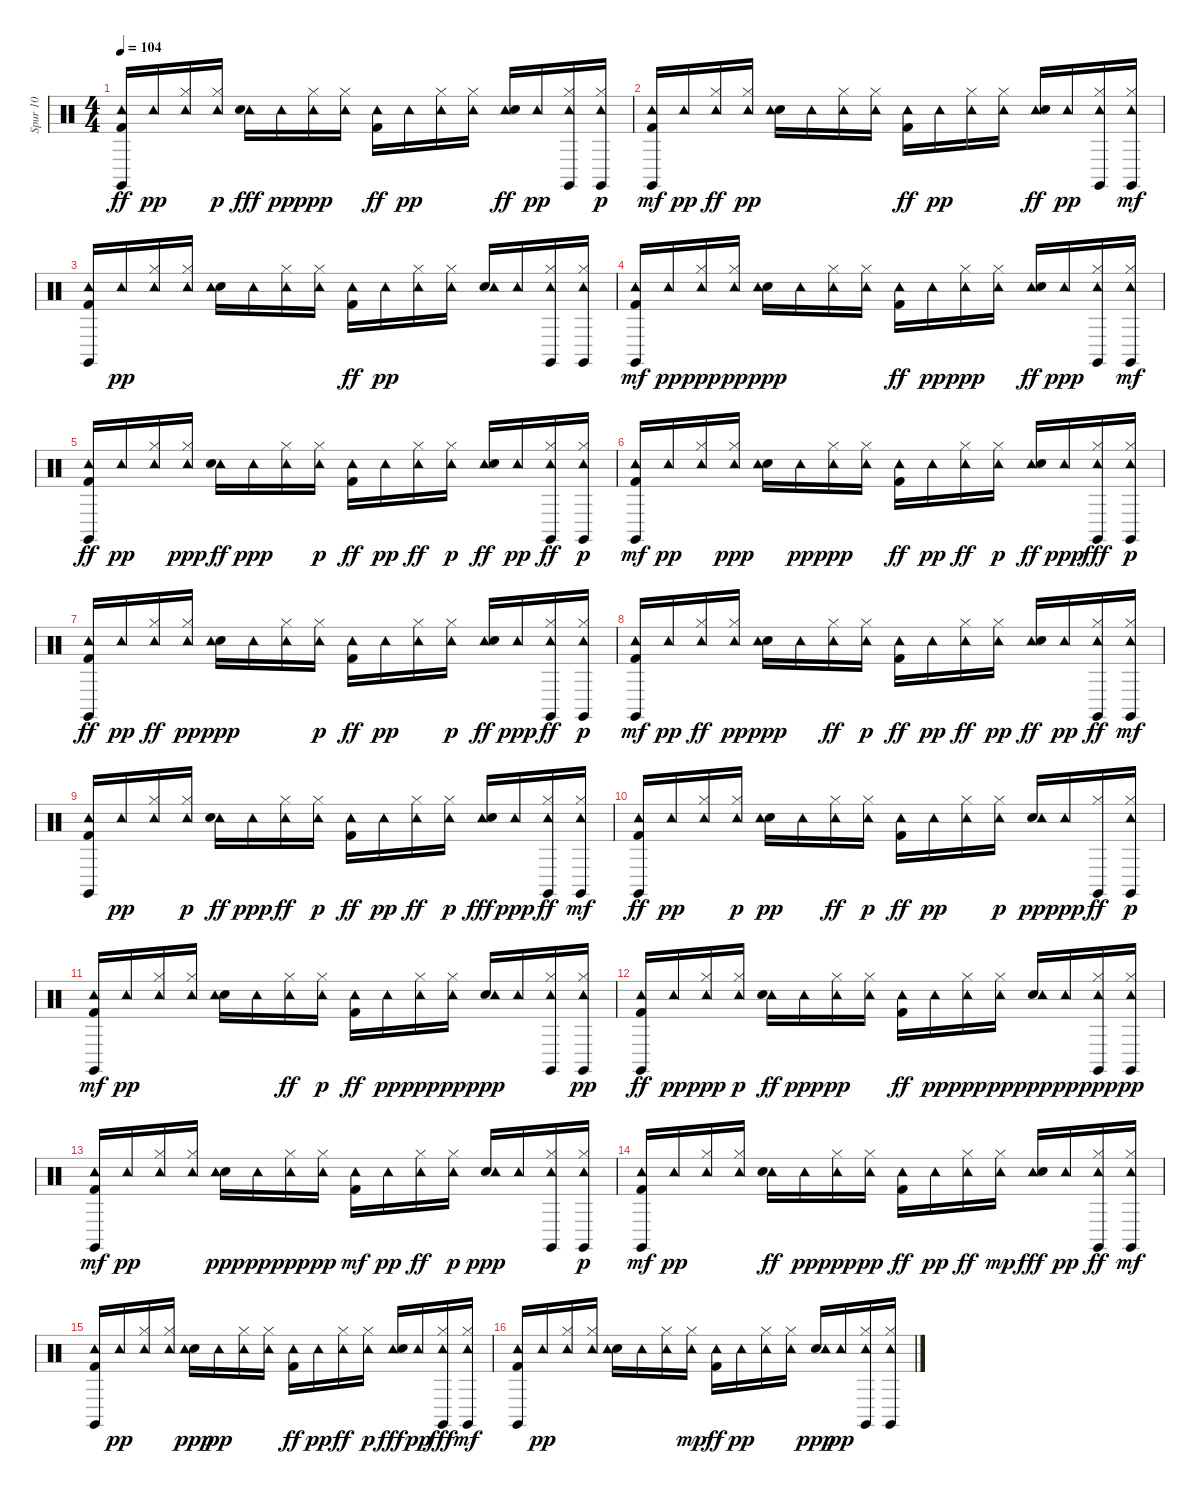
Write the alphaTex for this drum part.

\track ("Spur 10" "Spur 10") {instrument percussion}
\staff {score}
\articulation defaults
\ts (4 4)
\tempo 104
\clef neutral
\ks c
("Claves (hit)" "Tambourine (hit)" "Kick (hit) 2").16{dy ff} "Tambourine (hit)".16{dy pp} ("Hi-Hat (closed)" "Tambourine (hit)").16 ("Tambourine (hit)" "Hi-Hat (closed)").16{dy p} ("Tambourine (hit)" "Electric Snare (hit)").16{dy fff} "Tambourine (hit)".16{dy pp} ("Hi-Hat (closed)" "Tambourine (hit)").16{dy ppp} ("Hi-Hat (closed)" "Tambourine (hit)").16 ("Tambourine (hit)" "Kick (hit) 2").16{dy ff} "Tambourine (hit)".16{dy pp} ("Hi-Hat (closed)" "Tambourine (hit)").16 ("Hi-Hat (closed)" "Tambourine (hit)").16 ("Tambourine (hit)" "Electric Snare (hit)").16{dy ff} "Tambourine (hit)".16{dy pp} ("Hi-Hat (closed)" "Claves (hit)" "Tambourine (hit)").16 ("Tambourine (hit)" "Claves (hit)" "Hi-Hat (closed)").16{dy p} |
("Tambourine (hit)" "Kick (hit) 2" "Claves (hit)").16{dy mf} "Tambourine (hit)".16{dy pp} ("Tambourine (hit)" "Hi-Hat (closed)").16{dy ff} ("Hi-Hat (closed)" "Tambourine (hit)").16{dy pp} ("Electric Snare (hit)" "Tambourine (hit)").16 "Tambourine (hit)".16 ("Hi-Hat (closed)" "Tambourine (hit)").16 ("Hi-Hat (closed)" "Tambourine (hit)").16 ("Tambourine (hit)" "Kick (hit) 2").16{dy ff} "Tambourine (hit)".16{dy pp} ("Hi-Hat (closed)" "Tambourine (hit)").16 ("Hi-Hat (closed)" "Tambourine (hit)").16 ("Tambourine (hit)" "Electric Snare (hit)").16{dy ff} "Tambourine (hit)".16{dy pp} ("Hi-Hat (closed)" "Tambourine (hit)" "Claves (hit)").16 ("Hi-Hat (closed)" "Tambourine (hit)" "Claves (hit)").16{dy mf} |
("Tambourine (hit)" "Kick (hit) 2" "Claves (hit)").16 "Tambourine (hit)".16{dy pp} ("Hi-Hat (closed)" "Tambourine (hit)").16 ("Tambourine (hit)" "Hi-Hat (closed)").16 ("Electric Snare (hit)" "Tambourine (hit)").16 "Tambourine (hit)".16 ("Hi-Hat (closed)" "Tambourine (hit)").16 ("Hi-Hat (closed)" "Tambourine (hit)").16 ("Kick (hit) 2" "Tambourine (hit)").16{dy ff} "Tambourine (hit)".16{dy pp} ("Hi-Hat (closed)" "Tambourine (hit)").16 ("Hi-Hat (closed)" "Tambourine (hit)").16 ("Electric Snare (hit)" "Tambourine (hit)").16 "Tambourine (hit)".16 ("Hi-Hat (closed)" "Claves (hit)" "Tambourine (hit)").16 ("Hi-Hat (closed)" "Claves (hit)" "Tambourine (hit)").16 |
("Tambourine (hit)" "Kick (hit) 2" "Claves (hit)").16{dy mf} "Tambourine (hit)".16{dy pp} ("Hi-Hat (closed)" "Tambourine (hit)").16{dy ppp} ("Hi-Hat (closed)" "Tambourine (hit)").16{dy pp} ("Electric Snare (hit)" "Tambourine (hit)").16{dy ppp} "Tambourine (hit)".16 ("Hi-Hat (closed)" "Tambourine (hit)").16 ("Hi-Hat (closed)" "Tambourine (hit)").16 ("Kick (hit) 2" "Tambourine (hit)").16{dy ff} "Tambourine (hit)".16{dy pp} ("Hi-Hat (closed)" "Tambourine (hit)").16{dy ppp} ("Hi-Hat (closed)" "Tambourine (hit)").16 ("Tambourine (hit)" "Electric Snare (hit)").16{dy ff} "Tambourine (hit)".16{dy ppp} ("Hi-Hat (closed)" "Claves (hit)" "Tambourine (hit)").16 ("Hi-Hat (closed)" "Tambourine (hit)" "Claves (hit)").16{dy mf} |
("Tambourine (hit)" "Claves (hit)" "Kick (hit) 2").16{dy ff} "Tambourine (hit)".16{dy pp} ("Hi-Hat (closed)" "Tambourine (hit)").16 ("Hi-Hat (closed)" "Tambourine (hit)").16{dy ppp} ("Tambourine (hit)" "Electric Snare (hit)").16{dy ff} "Tambourine (hit)".16{dy ppp} ("Hi-Hat (closed)" "Tambourine (hit)").16 ("Tambourine (hit)" "Hi-Hat (closed)").16{dy p} ("Tambourine (hit)" "Kick (hit) 2").16{dy ff} "Tambourine (hit)".16{dy pp} ("Tambourine (hit)" "Hi-Hat (closed)").16{dy ff} ("Tambourine (hit)" "Hi-Hat (closed)").16{dy p} ("Tambourine (hit)" "Electric Snare (hit)").16{dy ff} "Tambourine (hit)".16{dy pp} ("Tambourine (hit)" "Claves (hit)" "Hi-Hat (closed)").16{dy ff} ("Tambourine (hit)" "Claves (hit)" "Hi-Hat (closed)").16{dy p} |
("Tambourine (hit)" "Kick (hit) 2" "Claves (hit)").16{dy mf} "Tambourine (hit)".16{dy pp} ("Hi-Hat (closed)" "Tambourine (hit)").16 ("Hi-Hat (closed)" "Tambourine (hit)").16{dy ppp} ("Electric Snare (hit)" "Tambourine (hit)").16 "Tambourine (hit)".16{dy pp} ("Hi-Hat (closed)" "Tambourine (hit)").16{dy ppp} ("Hi-Hat (closed)" "Tambourine (hit)").16 ("Tambourine (hit)" "Kick (hit) 2").16{dy ff} "Tambourine (hit)".16{dy pp} ("Tambourine (hit)" "Hi-Hat (closed)").16{dy ff} ("Tambourine (hit)" "Hi-Hat (closed)").16{dy p} ("Tambourine (hit)" "Electric Snare (hit)").16{dy ff} "Tambourine (hit)".16{dy ppp} ("Tambourine (hit)" "Hi-Hat (closed)" "Claves (hit)").16{dy fff} ("Tambourine (hit)" "Claves (hit)" "Hi-Hat (closed)").16{dy p} |
("Tambourine (hit)" "Claves (hit)" "Kick (hit) 2").16{dy ff} "Tambourine (hit)".16{dy pp} ("Tambourine (hit)" "Hi-Hat (closed)").16{dy ff} ("Tambourine (hit)" "Hi-Hat (closed)").16{dy pp} ("Electric Snare (hit)" "Tambourine (hit)").16{dy ppp} "Tambourine (hit)".16 ("Hi-Hat (closed)" "Tambourine (hit)").16 ("Tambourine (hit)" "Hi-Hat (closed)").16{dy p} ("Kick (hit) 2" "Tambourine (hit)").16{dy ff} "Tambourine (hit)".16{dy pp} ("Hi-Hat (closed)" "Tambourine (hit)").16 ("Tambourine (hit)" "Hi-Hat (closed)").16{dy p} ("Tambourine (hit)" "Electric Snare (hit)").16{dy ff} "Tambourine (hit)".16{dy ppp} ("Tambourine (hit)" "Hi-Hat (closed)" "Claves (hit)").16{dy ff} ("Tambourine (hit)" "Claves (hit)" "Hi-Hat (closed)").16{dy p} |
("Kick (hit) 2" "Tambourine (hit)" "Claves (hit)").16{dy mf} "Tambourine (hit)".16{dy pp} ("Tambourine (hit)" "Hi-Hat (closed)").16{dy ff} ("Tambourine (hit)" "Hi-Hat (closed)").16{dy pp} ("Electric Snare (hit)" "Tambourine (hit)").16{dy ppp} "Tambourine (hit)".16 ("Tambourine (hit)" "Hi-Hat (closed)").16{dy ff} ("Tambourine (hit)" "Hi-Hat (closed)").16{dy p} ("Kick (hit) 2" "Tambourine (hit)").16{dy ff} "Tambourine (hit)".16{dy pp} ("Tambourine (hit)" "Hi-Hat (closed)").16{dy ff} ("Tambourine (hit)" "Hi-Hat (closed)").16{dy pp} ("Tambourine (hit)" "Electric Snare (hit)").16{dy ff} "Tambourine (hit)".16{dy pp} ("Tambourine (hit)" "Hi-Hat (closed)" "Claves (hit)").16{dy ff} ("Tambourine (hit)" "Hi-Hat (closed)" "Claves (hit)").16{dy mf} |
("Kick (hit) 2" "Tambourine (hit)" "Claves (hit)").16 "Tambourine (hit)".16{dy pp} ("Hi-Hat (closed)" "Tambourine (hit)").16 ("Tambourine (hit)" "Hi-Hat (closed)").16{dy p} ("Tambourine (hit)" "Electric Snare (hit)").16{dy ff} "Tambourine (hit)".16{dy ppp} ("Tambourine (hit)" "Hi-Hat (closed)").16{dy ff} ("Tambourine (hit)" "Hi-Hat (closed)").16{dy p} ("Tambourine (hit)" "Kick (hit) 2").16{dy ff} "Tambourine (hit)".16{dy pp} ("Tambourine (hit)" "Hi-Hat (closed)").16{dy ff} ("Tambourine (hit)" "Hi-Hat (closed)").16{dy p} ("Tambourine (hit)" "Electric Snare (hit)").16{dy fff} "Tambourine (hit)".16{dy ppp} ("Tambourine (hit)" "Hi-Hat (closed)" "Claves (hit)").16{dy ff} ("Tambourine (hit)" "Hi-Hat (closed)" "Claves (hit)").16{dy mf} |
("Claves (hit)" "Tambourine (hit)" "Kick (hit) 2").16{dy ff} "Tambourine (hit)".16{dy pp} ("Hi-Hat (closed)" "Tambourine (hit)").16 ("Tambourine (hit)" "Hi-Hat (closed)").16{dy p} ("Electric Snare (hit)" "Tambourine (hit)").16{dy pp} "Tambourine (hit)".16 ("Tambourine (hit)" "Hi-Hat (closed)").16{dy ff} ("Tambourine (hit)" "Hi-Hat (closed)").16{dy p} ("Tambourine (hit)" "Kick (hit) 2").16{dy ff} "Tambourine (hit)".16{dy pp} ("Hi-Hat (closed)" "Tambourine (hit)").16 ("Tambourine (hit)" "Hi-Hat (closed)").16{dy p} ("Electric Snare (hit)" "Tambourine (hit)").16{dy pp} "Tambourine (hit)".16{dy ppp} ("Claves (hit)" "Hi-Hat (closed)").16{dy ff} ("Claves (hit)" "Tambourine (hit)" "Hi-Hat (closed)").16{dy p} |
("Tambourine (hit)" "Kick (hit) 2" "Claves (hit)").16{dy mf} "Tambourine (hit)".16{dy pp} ("Hi-Hat (closed)" "Tambourine (hit)").16 ("Hi-Hat (closed)" "Tambourine (hit)").16 ("Electric Snare (hit)" "Tambourine (hit)").16 "Tambourine (hit)".16 ("Tambourine (hit)" "Hi-Hat (closed)").16{dy ff} ("Tambourine (hit)" "Hi-Hat (closed)").16{dy p} ("Tambourine (hit)" "Kick (hit) 2").16{dy ff} "Tambourine (hit)".16{dy pp} ("Hi-Hat (closed)" "Tambourine (hit)").16{dy ppp} ("Hi-Hat (closed)" "Tambourine (hit)").16{dy pp} ("Electric Snare (hit)" "Tambourine (hit)").16{dy ppp} "Tambourine (hit)".16 ("Hi-Hat (closed)" "Claves (hit)" "Tambourine (hit)").16 ("Hi-Hat (closed)" "Claves (hit)" "Tambourine (hit)").16{dy pp} |
("Tambourine (hit)" "Claves (hit)" "Kick (hit) 2").16{dy ff} "Tambourine (hit)".16{dy pp} ("Hi-Hat (closed)" "Tambourine (hit)").16{dy ppp} ("Tambourine (hit)" "Hi-Hat (closed)").16{dy p} ("Tambourine (hit)" "Electric Snare (hit)").16{dy ff} "Tambourine (hit)".16{dy ppp} ("Hi-Hat (closed)" "Tambourine (hit)").16{dy pp} ("Hi-Hat (closed)" "Tambourine (hit)").16 ("Kick (hit) 2" "Tambourine (hit)").16{dy ff} "Tambourine (hit)".16{dy pp} ("Hi-Hat (closed)" "Tambourine (hit)").16{dy ppp} ("Hi-Hat (closed)" "Tambourine (hit)").16{dy pp} ("Electric Snare (hit)" "Tambourine (hit)").16{dy ppp} "Tambourine (hit)".16{dy pp} ("Hi-Hat (closed)" "Claves (hit)" "Tambourine (hit)").16{dy ppp} ("Hi-Hat (closed)" "Claves (hit)" "Tambourine (hit)").16{dy pp} |
("Tambourine (hit)" "Kick (hit) 2" "Claves (hit)").16{dy mf} "Tambourine (hit)".16{dy pp} ("Hi-Hat (closed)" "Tambourine (hit)").16 ("Hi-Hat (closed)" "Tambourine (hit)").16 ("Electric Snare (hit)" "Tambourine (hit)").16{dy ppp} "Tambourine (hit)".16{dy pp} ("Hi-Hat (closed)" "Tambourine (hit)").16{dy ppp} ("Hi-Hat (closed)" "Tambourine (hit)").16{dy pp} ("Kick (hit) 2" "Tambourine (hit)").16{dy mf} "Tambourine (hit)".16{dy pp} ("Tambourine (hit)" "Hi-Hat (closed)").16{dy ff} ("Tambourine (hit)" "Hi-Hat (closed)").16{dy p} ("Electric Snare (hit)" "Tambourine (hit)").16{dy ppp} "Tambourine (hit)".16 ("Claves (hit)" "Hi-Hat (closed)" "Tambourine (hit)").16 ("Claves (hit)" "Tambourine (hit)" "Hi-Hat (closed)").16{dy p} |
("Tambourine (hit)" "Kick (hit) 2" "Claves (hit)").16{dy mf} "Tambourine (hit)".16{dy pp} ("Hi-Hat (closed)" "Tambourine (hit)").16 ("Hi-Hat (closed)" "Tambourine (hit)").16 ("Tambourine (hit)" "Electric Snare (hit)").16{dy ff} "Tambourine (hit)".16{dy pp} ("Hi-Hat (closed)" "Tambourine (hit)").16{dy ppp} ("Hi-Hat (closed)" "Tambourine (hit)").16{dy pp} ("Kick (hit) 2" "Tambourine (hit)").16{dy ff} "Tambourine (hit)".16{dy pp} ("Tambourine (hit)" "Hi-Hat (closed)").16{dy ff} ("Tambourine (hit)" "Hi-Hat (closed)").16{dy mp} ("Tambourine (hit)" "Electric Snare (hit)").16{dy fff} "Tambourine (hit)".16{dy pp} ("Tambourine (hit)" "Hi-Hat (closed)" "Claves (hit)").16{dy ff} ("Tambourine (hit)" "Hi-Hat (closed)" "Claves (hit)").16{dy mf} |
("Tambourine (hit)" "Kick (hit) 2" "Claves (hit)").16 "Tambourine (hit)".16{dy pp} ("Hi-Hat (closed)" "Tambourine (hit)").16 ("Hi-Hat (closed)" "Tambourine (hit)").16 ("Electric Snare (hit)" "Tambourine (hit)").16{dy ppp} "Tambourine (hit)".16{dy pp} ("Hi-Hat (closed)" "Tambourine (hit)").16 ("Hi-Hat (closed)" "Tambourine (hit)").16 ("Kick (hit) 2" "Tambourine (hit)").16{dy ff} "Tambourine (hit)".16{dy pp} ("Tambourine (hit)" "Hi-Hat (closed)").16{dy ff} ("Tambourine (hit)" "Hi-Hat (closed)").16{dy p} ("Tambourine (hit)" "Electric Snare (hit)").16{dy fff} "Tambourine (hit)".16{dy pp} ("Tambourine (hit)" "Hi-Hat (closed)" "Claves (hit)").16{dy fff} ("Tambourine (hit)" "Hi-Hat (closed)" "Claves (hit)").16{dy mf} |
("Tambourine (hit)" "Kick (hit) 2" "Claves (hit)").16 "Tambourine (hit)".16{dy pp} ("Hi-Hat (closed)" "Tambourine (hit)").16 ("Hi-Hat (closed)" "Tambourine (hit)").16 ("Electric Snare (hit)" "Tambourine (hit)").16 "Tambourine (hit)".16 ("Hi-Hat (closed)" "Tambourine (hit)").16 ("Tambourine (hit)" "Hi-Hat (closed)").16{dy mp} ("Tambourine (hit)" "Kick (hit) 2").16{dy ff} "Tambourine (hit)".16{dy pp} ("Hi-Hat (closed)" "Tambourine (hit)").16 ("Hi-Hat (closed)" "Tambourine (hit)").16 ("Electric Snare (hit)" "Tambourine (hit)").16{dy ppp} "Tambourine (hit)".16{dy pp} ("Hi-Hat (closed)" "Tambourine (hit)" "Claves (hit)").16 ("Hi-Hat (closed)" "Claves (hit)" "Tambourine (hit)").16
